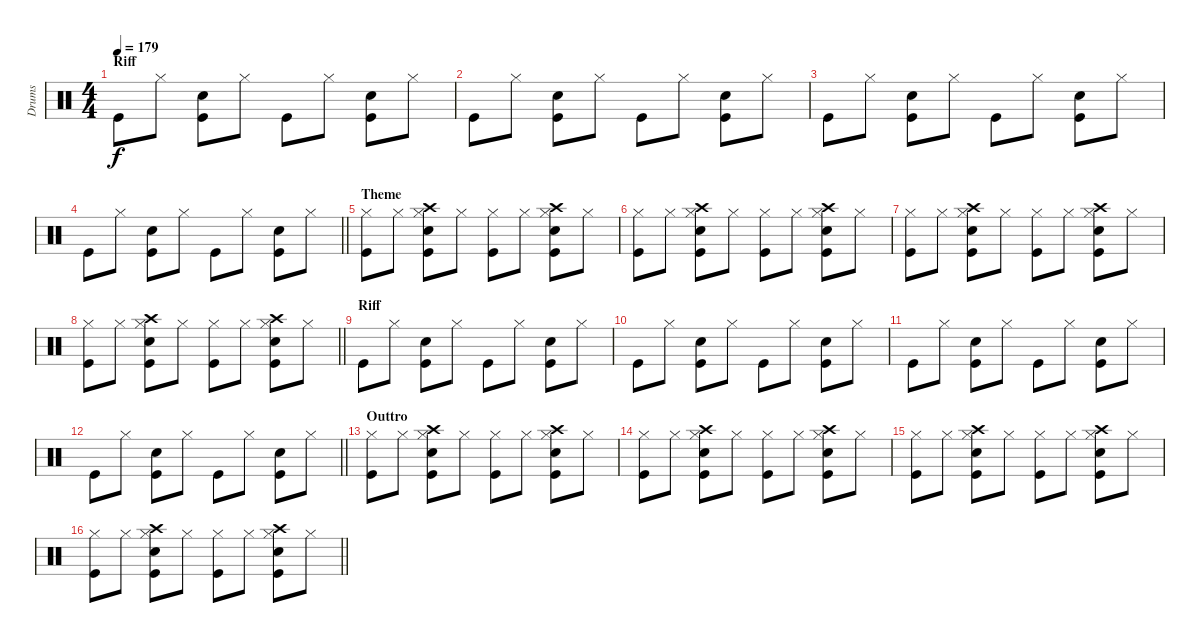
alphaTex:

\track ("Drums" "Drums") {instrument percussion}
\staff {score}
\articulation defaults
\ts (4 4)
\section ("" "Riff")
\tempo 179
\clef neutral
\ks c "Kick (hit)".8{dy f} "Hi-Hat (closed)".8
("Snare (hit) 2" "Kick (hit)").8 "Hi-Hat (closed)".8 "Kick (hit)".8 "Hi-Hat (closed)".8 ("Snare (hit) 2" "Kick (hit)").8 "Hi-Hat (closed)".8 |
"Kick (hit)".8 "Hi-Hat (closed)".8 ("Snare (hit) 2" "Kick (hit)").8 "Hi-Hat (closed)".8 "Kick (hit)".8 "Hi-Hat (closed)".8 ("Snare (hit) 2" "Kick (hit)").8 "Hi-Hat (closed)".8 |
"Kick (hit)".8 "Hi-Hat (closed)".8 ("Snare (hit) 2" "Kick (hit)").8 "Hi-Hat (closed)".8 "Kick (hit)".8 "Hi-Hat (closed)".8 ("Snare (hit) 2" "Kick (hit)").8 "Hi-Hat (closed)".8 |
\barLineRight lightlight "Kick (hit)".8 "Hi-Hat (closed)".8
("Snare (hit) 2" "Kick (hit)").8 "Hi-Hat (closed)".8 "Kick (hit)".8 "Hi-Hat (closed)".8 ("Snare (hit) 2" "Kick (hit)").8 "Hi-Hat (closed)".8 |
\section ("" "Theme")
("Hi-Hat (closed)" "Kick (hit)").8 "Hi-Hat (closed)".8 ("Crash high (hit)" "Hi-Hat (closed)" "Snare (hit) 2" "Kick (hit)").8 "Hi-Hat (closed)".8 ("Hi-Hat (closed)" "Kick (hit)").8 "Hi-Hat (closed)".8 ("Crash high (hit)" "Hi-Hat (closed)" "Snare (hit) 2" "Kick (hit)").8 "Hi-Hat (closed)".8 |
("Hi-Hat (closed)" "Kick (hit)").8 "Hi-Hat (closed)".8 ("Crash high (hit)" "Hi-Hat (closed)" "Snare (hit) 2" "Kick (hit)").8 "Hi-Hat (closed)".8 ("Hi-Hat (closed)" "Kick (hit)").8 "Hi-Hat (closed)".8 ("Crash high (hit)" "Hi-Hat (closed)" "Snare (hit) 2" "Kick (hit)").8 "Hi-Hat (closed)".8 |
("Hi-Hat (closed)" "Kick (hit)").8 "Hi-Hat (closed)".8 ("Crash high (hit)" "Hi-Hat (closed)" "Snare (hit) 2" "Kick (hit)").8 "Hi-Hat (closed)".8 ("Hi-Hat (closed)" "Kick (hit)").8 "Hi-Hat (closed)".8 ("Crash high (hit)" "Hi-Hat (closed)" "Snare (hit) 2" "Kick (hit)").8 "Hi-Hat (closed)".8 |
\barLineRight lightlight
("Hi-Hat (closed)" "Kick (hit)").8 "Hi-Hat (closed)".8 ("Crash high (hit)" "Hi-Hat (closed)" "Snare (hit) 2" "Kick (hit)").8 "Hi-Hat (closed)".8 ("Hi-Hat (closed)" "Kick (hit)").8 "Hi-Hat (closed)".8 ("Crash high (hit)" "Hi-Hat (closed)" "Snare (hit) 2" "Kick (hit)").8 "Hi-Hat (closed)".8 |
\section ("" "Riff")
"Kick (hit)".8 "Hi-Hat (closed)".8 ("Snare (hit) 2" "Kick (hit)").8 "Hi-Hat (closed)".8 "Kick (hit)".8 "Hi-Hat (closed)".8 ("Snare (hit) 2" "Kick (hit)").8 "Hi-Hat (closed)".8 |
"Kick (hit)".8 "Hi-Hat (closed)".8 ("Snare (hit) 2" "Kick (hit)").8 "Hi-Hat (closed)".8 "Kick (hit)".8 "Hi-Hat (closed)".8 ("Snare (hit) 2" "Kick (hit)").8 "Hi-Hat (closed)".8 |
"Kick (hit)".8 "Hi-Hat (closed)".8 ("Snare (hit) 2" "Kick (hit)").8 "Hi-Hat (closed)".8 "Kick (hit)".8 "Hi-Hat (closed)".8 ("Snare (hit) 2" "Kick (hit)").8 "Hi-Hat (closed)".8 |
\barLineRight lightlight "Kick (hit)".8 "Hi-Hat (closed)".8
("Snare (hit) 2" "Kick (hit)").8 "Hi-Hat (closed)".8 "Kick (hit)".8 "Hi-Hat (closed)".8 ("Snare (hit) 2" "Kick (hit)").8 "Hi-Hat (closed)".8 |
\section ("" "Outtro")
("Hi-Hat (closed)" "Kick (hit)").8 "Hi-Hat (closed)".8 ("Crash high (hit)" "Hi-Hat (closed)" "Snare (hit) 2" "Kick (hit)").8 "Hi-Hat (closed)".8 ("Hi-Hat (closed)" "Kick (hit)").8 "Hi-Hat (closed)".8 ("Crash high (hit)" "Hi-Hat (closed)" "Snare (hit) 2" "Kick (hit)").8 "Hi-Hat (closed)".8 |
("Hi-Hat (closed)" "Kick (hit)").8 "Hi-Hat (closed)".8 ("Crash high (hit)" "Hi-Hat (closed)" "Snare (hit) 2" "Kick (hit)").8 "Hi-Hat (closed)".8 ("Hi-Hat (closed)" "Kick (hit)").8 "Hi-Hat (closed)".8 ("Crash high (hit)" "Hi-Hat (closed)" "Snare (hit) 2" "Kick (hit)").8 "Hi-Hat (closed)".8 |
("Hi-Hat (closed)" "Kick (hit)").8 "Hi-Hat (closed)".8 ("Crash high (hit)" "Hi-Hat (closed)" "Snare (hit) 2" "Kick (hit)").8 "Hi-Hat (closed)".8 ("Hi-Hat (closed)" "Kick (hit)").8 "Hi-Hat (closed)".8 ("Crash high (hit)" "Hi-Hat (closed)" "Snare (hit) 2" "Kick (hit)").8 "Hi-Hat (closed)".8 |
\barLineRight lightlight
("Hi-Hat (closed)" "Kick (hit)").8 "Hi-Hat (closed)".8 ("Crash high (hit)" "Hi-Hat (closed)" "Snare (hit) 2" "Kick (hit)").8 "Hi-Hat (closed)".8 ("Hi-Hat (closed)" "Kick (hit)").8 "Hi-Hat (closed)".8 ("Crash high (hit)" "Hi-Hat (closed)" "Snare (hit) 2" "Kick (hit)").8 "Hi-Hat (closed)".8
